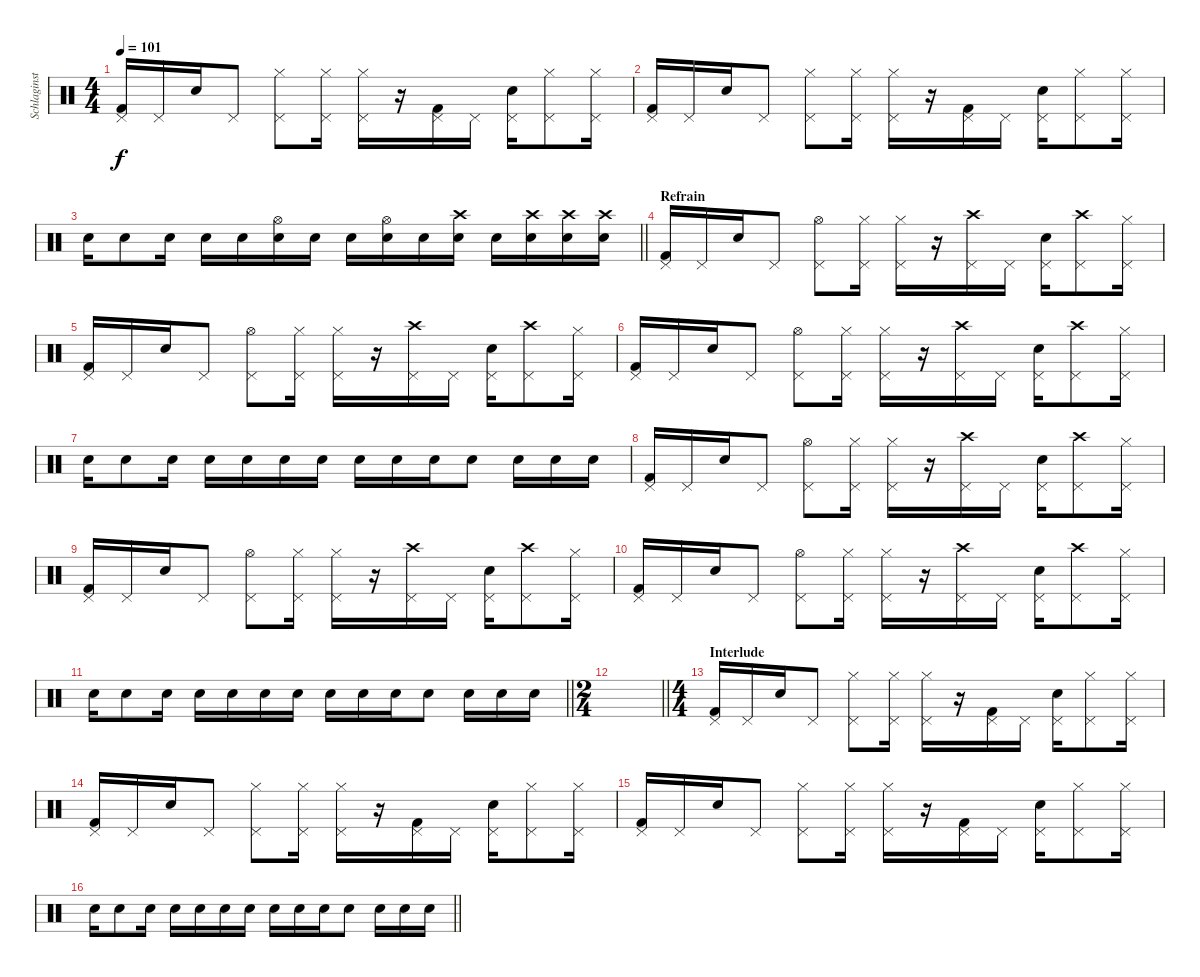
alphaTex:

\track ("Schlaginstrumente - Auswahl" "Schlaginst") {instrument percussion}
\staff {score}
\articulation defaults
\ts (4 4)
\tempo 101
\clef neutral
\ks c
("Kick (hit) 2" "Pedal Hi-Hat (hit)").16{dy f} "Pedal Hi-Hat (hit)".16 "Electric Snare (hit)".16 "Pedal Hi-Hat (hit)".8 ("Hi-Hat (closed)" "Pedal Hi-Hat (hit)").8 ("Hi-Hat (closed)" "Pedal Hi-Hat (hit)").16 ("Hi-Hat (closed)" "Pedal Hi-Hat (hit)").16 r.16 ("Kick (hit) 2" "Pedal Hi-Hat (hit)").16 "Pedal Hi-Hat (hit)".16 ("Snare (hit) 2" "Pedal Hi-Hat (hit)").16 ("Hi-Hat (closed)" "Pedal Hi-Hat (hit)").8 ("Hi-Hat (closed)" "Pedal Hi-Hat (hit)").16 |
("Kick (hit) 2" "Pedal Hi-Hat (hit)").16 "Pedal Hi-Hat (hit)".16 "Electric Snare (hit)".16 "Pedal Hi-Hat (hit)".8 ("Hi-Hat (closed)" "Pedal Hi-Hat (hit)").8 ("Hi-Hat (closed)" "Pedal Hi-Hat (hit)").16 ("Hi-Hat (closed)" "Pedal Hi-Hat (hit)").16 r.16 ("Kick (hit) 2" "Pedal Hi-Hat (hit)").16 "Pedal Hi-Hat (hit)".16 ("Snare (hit) 2" "Pedal Hi-Hat (hit)").16 ("Hi-Hat (closed)" "Pedal Hi-Hat (hit)").8 ("Hi-Hat (closed)" "Pedal Hi-Hat (hit)").16 |
\barLineRight lightlight "Electric Snare (hit)".16 "Electric Snare (hit)".8 "Electric Snare (hit)".16 "Electric Snare (hit)".16 "Electric Snare (hit)".16
("Electric Snare (hit)" "Hi-Hat (open)").16 "Electric Snare (hit)".16 "Electric Snare (hit)".16 ("Electric Snare (hit)" "Hi-Hat (open)").16 "Electric Snare (hit)".16 ("Electric Snare (hit)" "Crash high (hit)").16 "Electric Snare (hit)".16 ("Electric Snare (hit)" "Crash high (hit)").16 ("Electric Snare (hit)" "Crash high (hit)").16 ("Electric Snare (hit)" "Crash high (hit)").16 |
\section ("" "Refrain")
("Kick (hit) 2" "Pedal Hi-Hat (hit)").16 "Pedal Hi-Hat (hit)".16 "Electric Snare (hit)".16 "Pedal Hi-Hat (hit)".8 ("Hi-Hat (open)" "Pedal Hi-Hat (hit)").8 ("Hi-Hat (closed)" "Pedal Hi-Hat (hit)").16 ("Hi-Hat (closed)" "Pedal Hi-Hat (hit)").16 r.16 ("Crash high (hit)" "Pedal Hi-Hat (hit)").16 "Pedal Hi-Hat (hit)".16 ("Snare (hit) 2" "Pedal Hi-Hat (hit)").16 ("Crash high (hit)" "Pedal Hi-Hat (hit)").8 ("Hi-Hat (closed)" "Pedal Hi-Hat (hit)").16 |
("Kick (hit) 2" "Pedal Hi-Hat (hit)").16 "Pedal Hi-Hat (hit)".16 "Electric Snare (hit)".16 "Pedal Hi-Hat (hit)".8 ("Hi-Hat (open)" "Pedal Hi-Hat (hit)").8 ("Hi-Hat (closed)" "Pedal Hi-Hat (hit)").16 ("Hi-Hat (closed)" "Pedal Hi-Hat (hit)").16 r.16 ("Crash high (hit)" "Pedal Hi-Hat (hit)").16 "Pedal Hi-Hat (hit)".16 ("Snare (hit) 2" "Pedal Hi-Hat (hit)").16 ("Crash high (hit)" "Pedal Hi-Hat (hit)").8 ("Hi-Hat (closed)" "Pedal Hi-Hat (hit)").16 |
("Kick (hit) 2" "Pedal Hi-Hat (hit)").16 "Pedal Hi-Hat (hit)".16 "Electric Snare (hit)".16 "Pedal Hi-Hat (hit)".8 ("Hi-Hat (open)" "Pedal Hi-Hat (hit)").8 ("Hi-Hat (closed)" "Pedal Hi-Hat (hit)").16 ("Hi-Hat (closed)" "Pedal Hi-Hat (hit)").16 r.16 ("Crash high (hit)" "Pedal Hi-Hat (hit)").16 "Pedal Hi-Hat (hit)".16 ("Snare (hit) 2" "Pedal Hi-Hat (hit)").16 ("Crash high (hit)" "Pedal Hi-Hat (hit)").8 ("Hi-Hat (closed)" "Pedal Hi-Hat (hit)").16 |
"Electric Snare (hit)".16 "Electric Snare (hit)".8 "Electric Snare (hit)".16 "Electric Snare (hit)".16 "Electric Snare (hit)".16 "Electric Snare (hit)".16 "Electric Snare (hit)".16 "Electric Snare (hit)".16 "Electric Snare (hit)".16 "Electric Snare (hit)".16 "Electric Snare (hit)".8 "Electric Snare (hit)".16 "Electric Snare (hit)".16 "Electric Snare (hit)".16 |
("Kick (hit) 2" "Pedal Hi-Hat (hit)").16 "Pedal Hi-Hat (hit)".16 "Electric Snare (hit)".16 "Pedal Hi-Hat (hit)".8 ("Hi-Hat (open)" "Pedal Hi-Hat (hit)").8 ("Hi-Hat (closed)" "Pedal Hi-Hat (hit)").16 ("Hi-Hat (closed)" "Pedal Hi-Hat (hit)").16 r.16 ("Crash high (hit)" "Pedal Hi-Hat (hit)").16 "Pedal Hi-Hat (hit)".16 ("Snare (hit) 2" "Pedal Hi-Hat (hit)").16 ("Crash high (hit)" "Pedal Hi-Hat (hit)").8 ("Hi-Hat (closed)" "Pedal Hi-Hat (hit)").16 |
("Kick (hit) 2" "Pedal Hi-Hat (hit)").16 "Pedal Hi-Hat (hit)".16 "Electric Snare (hit)".16 "Pedal Hi-Hat (hit)".8 ("Hi-Hat (open)" "Pedal Hi-Hat (hit)").8 ("Hi-Hat (closed)" "Pedal Hi-Hat (hit)").16 ("Hi-Hat (closed)" "Pedal Hi-Hat (hit)").16 r.16 ("Crash high (hit)" "Pedal Hi-Hat (hit)").16 "Pedal Hi-Hat (hit)".16 ("Snare (hit) 2" "Pedal Hi-Hat (hit)").16 ("Crash high (hit)" "Pedal Hi-Hat (hit)").8 ("Hi-Hat (closed)" "Pedal Hi-Hat (hit)").16 |
("Kick (hit) 2" "Pedal Hi-Hat (hit)").16 "Pedal Hi-Hat (hit)".16 "Electric Snare (hit)".16 "Pedal Hi-Hat (hit)".8 ("Hi-Hat (open)" "Pedal Hi-Hat (hit)").8 ("Hi-Hat (closed)" "Pedal Hi-Hat (hit)").16 ("Hi-Hat (closed)" "Pedal Hi-Hat (hit)").16 r.16 ("Crash high (hit)" "Pedal Hi-Hat (hit)").16 "Pedal Hi-Hat (hit)".16 ("Snare (hit) 2" "Pedal Hi-Hat (hit)").16 ("Crash high (hit)" "Pedal Hi-Hat (hit)").8 ("Hi-Hat (closed)" "Pedal Hi-Hat (hit)").16 |
\barLineRight lightlight "Electric Snare (hit)".16 "Electric Snare (hit)".8 "Electric Snare (hit)".16 "Electric Snare (hit)".16 "Electric Snare (hit)".16 "Electric Snare (hit)".16 "Electric Snare (hit)".16 "Electric Snare (hit)".16 "Electric Snare (hit)".16 "Electric Snare (hit)".16 "Electric Snare (hit)".8 "Electric Snare (hit)".16 "Electric Snare (hit)".16 "Electric Snare (hit)".16
|
\ts (2 4)
\barLineRight lightlight
|
\ts (4 4)
\section ("" "Interlude")
("Kick (hit) 2" "Pedal Hi-Hat (hit)").16 "Pedal Hi-Hat (hit)".16 "Electric Snare (hit)".16 "Pedal Hi-Hat (hit)".8 ("Hi-Hat (closed)" "Pedal Hi-Hat (hit)").8 ("Hi-Hat (closed)" "Pedal Hi-Hat (hit)").16 ("Hi-Hat (closed)" "Pedal Hi-Hat (hit)").16 r.16 ("Kick (hit) 2" "Pedal Hi-Hat (hit)").16 "Pedal Hi-Hat (hit)".16 ("Snare (hit) 2" "Pedal Hi-Hat (hit)").16 ("Hi-Hat (closed)" "Pedal Hi-Hat (hit)").8 ("Hi-Hat (closed)" "Pedal Hi-Hat (hit)").16 |
("Kick (hit) 2" "Pedal Hi-Hat (hit)").16 "Pedal Hi-Hat (hit)".16 "Electric Snare (hit)".16 "Pedal Hi-Hat (hit)".8 ("Hi-Hat (closed)" "Pedal Hi-Hat (hit)").8 ("Hi-Hat (closed)" "Pedal Hi-Hat (hit)").16 ("Hi-Hat (closed)" "Pedal Hi-Hat (hit)").16 r.16 ("Kick (hit) 2" "Pedal Hi-Hat (hit)").16 "Pedal Hi-Hat (hit)".16 ("Snare (hit) 2" "Pedal Hi-Hat (hit)").16 ("Hi-Hat (closed)" "Pedal Hi-Hat (hit)").8 ("Hi-Hat (closed)" "Pedal Hi-Hat (hit)").16 |
("Kick (hit) 2" "Pedal Hi-Hat (hit)").16 "Pedal Hi-Hat (hit)".16 "Electric Snare (hit)".16 "Pedal Hi-Hat (hit)".8 ("Hi-Hat (closed)" "Pedal Hi-Hat (hit)").8 ("Hi-Hat (closed)" "Pedal Hi-Hat (hit)").16 ("Hi-Hat (closed)" "Pedal Hi-Hat (hit)").16 r.16 ("Kick (hit) 2" "Pedal Hi-Hat (hit)").16 "Pedal Hi-Hat (hit)".16 ("Snare (hit) 2" "Pedal Hi-Hat (hit)").16 ("Hi-Hat (closed)" "Pedal Hi-Hat (hit)").8 ("Hi-Hat (closed)" "Pedal Hi-Hat (hit)").16 |
\barLineRight lightlight "Electric Snare (hit)".16 "Electric Snare (hit)".8 "Electric Snare (hit)".16 "Electric Snare (hit)".16 "Electric Snare (hit)".16 "Electric Snare (hit)".16 "Electric Snare (hit)".16 "Electric Snare (hit)".16 "Electric Snare (hit)".16 "Electric Snare (hit)".16 "Electric Snare (hit)".8 "Electric Snare (hit)".16 "Electric Snare (hit)".16 "Electric Snare (hit)".16
